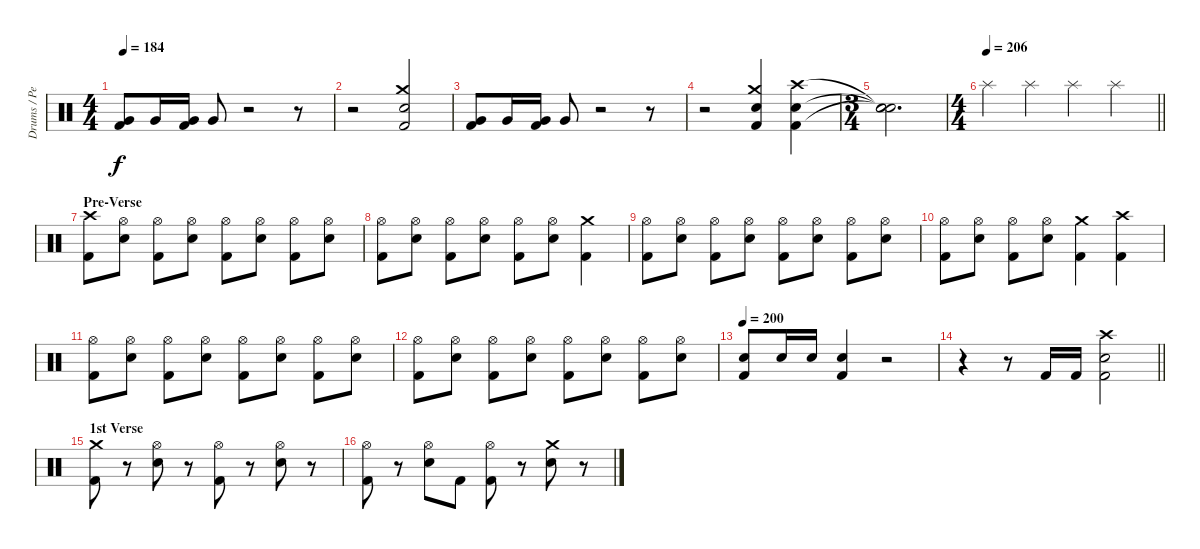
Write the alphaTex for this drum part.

\track ("Drums / Percussion" "Drums / Pe") {instrument percussion}
\staff {score}
\articulation defaults
\ts (4 4)
\tempo 184
\clef neutral
\ks c
("Very Low Tom (hit)" "Kick (hit) 2").8{dy f} "Very Low Tom (hit)".16 ("Very Low Tom (hit)" "Kick (hit) 2").16 "Very Low Tom (hit)".8 r.2 r.8 |
r.2 ("Crash medium (hit)" "Electric Snare (hit)" "Kick (hit) 2").2 |
("Very Low Tom (hit)" "Kick (hit) 2").8 "Very Low Tom (hit)".16 ("Very Low Tom (hit)" "Kick (hit) 2").16 "Very Low Tom (hit)".8 r.2 r.8 |
r.2 ("Crash medium (hit)" "Electric Snare (hit)" "Kick (hit) 2").4 ("Crash high (hit)" "Electric Snare (hit)" "Kick (hit) 2").4 |
\ts (3 4)
("Snare (hit)"{t} "Snare (hit)"{t} "Snare (hit)"{t}).2{d} |
\ts (4 4)
\tempo 206
\barLineRight lightlight "Splash (hit)".4 "Splash (hit)".4 "Splash (hit)".4 "Splash (hit)".4
|
\section ("" "Pre-Verse")
("Crash high (hit)" "Kick (hit) 2").8 ("Hi-Hat (open)" "Electric Snare (hit)").8 ("Hi-Hat (open)" "Kick (hit) 2").8 ("Hi-Hat (open)" "Electric Snare (hit)").8 ("Hi-Hat (open)" "Kick (hit) 2").8 ("Hi-Hat (open)" "Electric Snare (hit)").8 ("Hi-Hat (open)" "Kick (hit) 2").8 ("Hi-Hat (open)" "Electric Snare (hit)").8 |
("Hi-Hat (open)" "Kick (hit) 2").8 ("Hi-Hat (open)" "Electric Snare (hit)").8 ("Hi-Hat (open)" "Kick (hit) 2").8 ("Hi-Hat (open)" "Electric Snare (hit)").8 ("Hi-Hat (open)" "Kick (hit) 2").8 ("Hi-Hat (open)" "Electric Snare (hit)").8 ("Crash medium (hit)" "Kick (hit) 2").4 |
("Hi-Hat (open)" "Kick (hit) 2").8 ("Hi-Hat (open)" "Electric Snare (hit)").8 ("Hi-Hat (open)" "Kick (hit) 2").8 ("Hi-Hat (open)" "Electric Snare (hit)").8 ("Hi-Hat (open)" "Kick (hit) 2").8 ("Hi-Hat (open)" "Electric Snare (hit)").8 ("Hi-Hat (open)" "Kick (hit) 2").8 ("Hi-Hat (open)" "Electric Snare (hit)").8 |
("Hi-Hat (open)" "Kick (hit) 2").8 ("Hi-Hat (open)" "Electric Snare (hit)").8 ("Hi-Hat (open)" "Kick (hit) 2").8 ("Hi-Hat (open)" "Electric Snare (hit)").8 ("Crash medium (hit)" "Kick (hit) 2").4 ("Crash high (hit)" "Kick (hit) 2").4 |
("Hi-Hat (open)" "Kick (hit) 2").8 ("Hi-Hat (open)" "Electric Snare (hit)").8 ("Hi-Hat (open)" "Kick (hit) 2").8 ("Hi-Hat (open)" "Electric Snare (hit)").8 ("Hi-Hat (open)" "Kick (hit) 2").8 ("Hi-Hat (open)" "Electric Snare (hit)").8 ("Hi-Hat (open)" "Kick (hit) 2").8 ("Hi-Hat (open)" "Electric Snare (hit)").8 |
("Hi-Hat (open)" "Kick (hit) 2").8 ("Hi-Hat (open)" "Electric Snare (hit)").8 ("Hi-Hat (open)" "Kick (hit) 2").8 ("Hi-Hat (open)" "Electric Snare (hit)").8 ("Hi-Hat (open)" "Kick (hit) 2").8 ("Hi-Hat (open)" "Electric Snare (hit)").8 ("Hi-Hat (open)" "Kick (hit) 2").8 ("Hi-Hat (open)" "Electric Snare (hit)").8 |
\tempo 200
("Electric Snare (hit)" "Kick (hit) 2").8 "Electric Snare (hit)".16 "Electric Snare (hit)".16 ("Electric Snare (hit)" "Kick (hit) 2").4 r.2 |
\barLineRight lightlight
r.4 r.8 "Kick (hit) 2".16 "Kick (hit) 2".16 ("Crash high (hit)" "Electric Snare (hit)" "Kick (hit) 2").2 |
\section ("" "1st Verse")
("Crash medium (hit)" "Kick (hit) 2").8 r.8 ("Hi-Hat (open)" "Electric Snare (hit)").8 r.8 ("Hi-Hat (open)" "Kick (hit) 2").8 r.8 ("Hi-Hat (open)" "Electric Snare (hit)").8 r.8 |
("Hi-Hat (open)" "Kick (hit) 2").8 r.8 ("Hi-Hat (open)" "Electric Snare (hit)").8 "Kick (hit) 2".8 ("Hi-Hat (open)" "Kick (hit) 2").8 r.8 ("Crash medium (hit)" "Electric Snare (hit)").8 r.8
